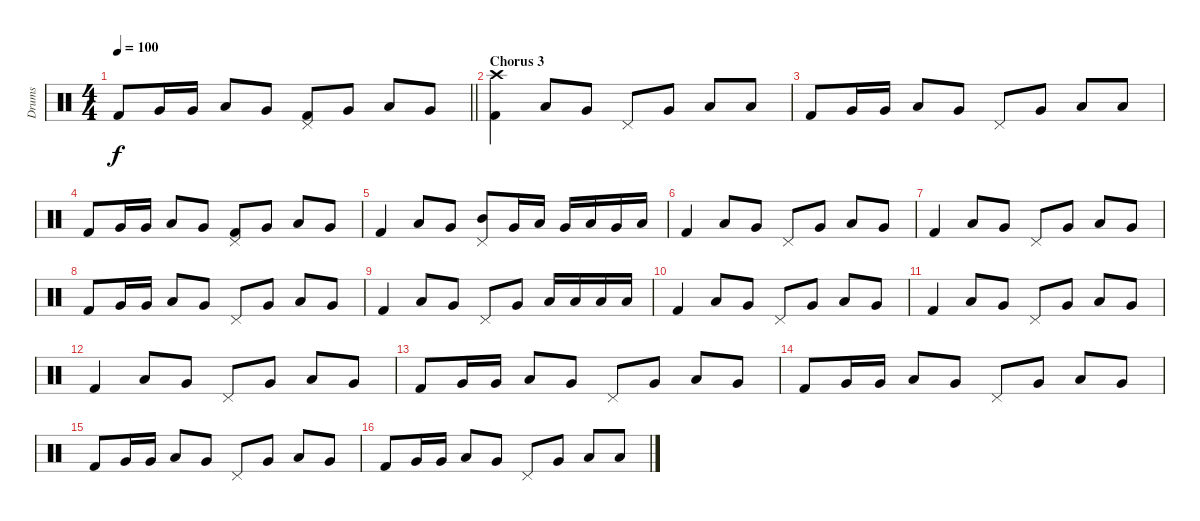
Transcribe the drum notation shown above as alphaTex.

\track ("Drums" "Drums") {instrument percussion}
\staff {score}
\articulation defaults
\ts (4 4)
\tempo 100
\clef neutral
\barLineRight lightlight
\ks c "Kick (hit) 2".8{dy f} "Very Low Tom (hit)".16 "Very Low Tom (hit)".16 "Low Tom (hit)".8 "Very Low Tom (hit)".8
("Pedal Hi-Hat (hit)" "Kick (hit) 2").8 "Very Low Tom (hit)".8 "Low Tom (hit)".8 "Very Low Tom (hit)".8 |
\section ("" "Chorus 3")
("Crash high (hit)" "Kick (hit) 2").4 "Low Tom (hit)".8 "Very Low Tom (hit)".8 "Pedal Hi-Hat (hit)".8 "Very Low Tom (hit)".8 "Low Tom (hit)".8 "Low Tom (hit)".8 |
"Kick (hit) 2".8 "Very Low Tom (hit)".16 "Very Low Tom (hit)".16 "Low Tom (hit)".8 "Very Low Tom (hit)".8 "Pedal Hi-Hat (hit)".8 "Very Low Tom (hit)".8 "Low Tom (hit)".8 "Low Tom (hit)".8 |
"Kick (hit) 2".8 "Very Low Tom (hit)".16 "Very Low Tom (hit)".16 "Low Tom (hit)".8 "Very Low Tom (hit)".8 ("Pedal Hi-Hat (hit)" "Kick (hit) 2").8 "Very Low Tom (hit)".8 "Low Tom (hit)".8 "Very Low Tom (hit)".8 |
"Kick (hit) 2".4 "Low Tom (hit)".8 "Very Low Tom (hit)".8 ("Pedal Hi-Hat (hit)" "Mid Tom (hit)").8 "Very Low Tom (hit)".16 "Low Tom (hit)".16 "Very Low Tom (hit)".16 "Low Tom (hit)".16 "Very Low Tom (hit)".16 "Low Tom (hit)".16 |
"Kick (hit) 2".4 "Low Tom (hit)".8 "Very Low Tom (hit)".8 "Pedal Hi-Hat (hit)".8 "Very Low Tom (hit)".8 "Low Tom (hit)".8 "Very Low Tom (hit)".8 |
"Kick (hit) 2".4 "Low Tom (hit)".8 "Very Low Tom (hit)".8 "Pedal Hi-Hat (hit)".8 "Very Low Tom (hit)".8 "Low Tom (hit)".8 "Very Low Tom (hit)".8 |
"Kick (hit) 2".8 "Very Low Tom (hit)".16 "Very Low Tom (hit)".16 "Low Tom (hit)".8 "Very Low Tom (hit)".8 "Pedal Hi-Hat (hit)".8 "Very Low Tom (hit)".8 "Low Tom (hit)".8 "Very Low Tom (hit)".8 |
"Kick (hit) 2".4 "Low Tom (hit)".8 "Very Low Tom (hit)".8 "Pedal Hi-Hat (hit)".8 "Very Low Tom (hit)".8 "Low Tom (hit)".16 "Low Tom (hit)".16 "Low Tom (hit)".16 "Low Tom (hit)".16 |
"Kick (hit) 2".4 "Low Tom (hit)".8 "Very Low Tom (hit)".8 "Pedal Hi-Hat (hit)".8 "Very Low Tom (hit)".8 "Low Tom (hit)".8 "Very Low Tom (hit)".8 |
"Kick (hit) 2".4 "Low Tom (hit)".8 "Very Low Tom (hit)".8 "Pedal Hi-Hat (hit)".8 "Very Low Tom (hit)".8 "Low Tom (hit)".8 "Very Low Tom (hit)".8 |
"Kick (hit) 2".4 "Low Tom (hit)".8 "Very Low Tom (hit)".8 "Pedal Hi-Hat (hit)".8 "Very Low Tom (hit)".8 "Low Tom (hit)".8 "Very Low Tom (hit)".8 |
"Kick (hit) 2".8 "Very Low Tom (hit)".16 "Very Low Tom (hit)".16 "Low Tom (hit)".8 "Very Low Tom (hit)".8 "Pedal Hi-Hat (hit)".8 "Very Low Tom (hit)".8 "Low Tom (hit)".8 "Very Low Tom (hit)".8 |
"Kick (hit) 2".8 "Very Low Tom (hit)".16 "Very Low Tom (hit)".16 "Low Tom (hit)".8 "Very Low Tom (hit)".8 "Pedal Hi-Hat (hit)".8 "Very Low Tom (hit)".8 "Low Tom (hit)".8 "Very Low Tom (hit)".8 |
"Kick (hit) 2".8 "Very Low Tom (hit)".16 "Very Low Tom (hit)".16 "Low Tom (hit)".8 "Very Low Tom (hit)".8 "Pedal Hi-Hat (hit)".8 "Very Low Tom (hit)".8 "Low Tom (hit)".8 "Very Low Tom (hit)".8 |
"Kick (hit) 2".8 "Very Low Tom (hit)".16 "Very Low Tom (hit)".16 "Low Tom (hit)".8 "Very Low Tom (hit)".8 "Pedal Hi-Hat (hit)".8 "Very Low Tom (hit)".8 "Low Tom (hit)".8 "Low Tom (hit)".8
